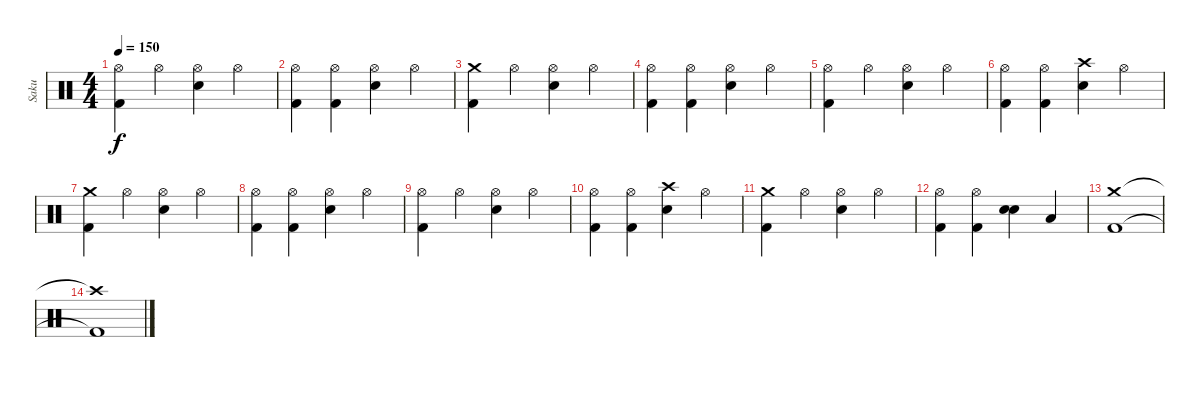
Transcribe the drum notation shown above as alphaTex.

\track ("Saku" "Saku") {instrument percussion}
\staff {score}
\articulation defaults
\ts (4 4)
\tempo 150
\clef neutral
\ks c
("Hi-Hat (open)" "Kick (hit) 2").4{dy f} "Hi-Hat (open)".4 ("Hi-Hat (open)" "Electric Snare (hit)").4 "Hi-Hat (open)".4 |
("Hi-Hat (open)" "Kick (hit) 2").4 ("Hi-Hat (open)" "Kick (hit) 2").4 ("Hi-Hat (open)" "Electric Snare (hit)").4 "Hi-Hat (open)".4 |
("Crash medium (hit)" "Kick (hit) 2").4 "Hi-Hat (open)".4 ("Hi-Hat (open)" "Electric Snare (hit)").4 "Hi-Hat (open)".4 |
("Hi-Hat (open)" "Kick (hit) 2").4 ("Hi-Hat (open)" "Kick (hit) 2").4 ("Hi-Hat (open)" "Electric Snare (hit)").4 "Hi-Hat (open)".4 |
("Hi-Hat (open)" "Kick (hit) 2").4 "Hi-Hat (open)".4 ("Hi-Hat (open)" "Electric Snare (hit)").4 "Hi-Hat (open)".4 |
("Hi-Hat (open)" "Kick (hit) 2").4 ("Hi-Hat (open)" "Kick (hit) 2").4 ("Crash high (hit)" "Electric Snare (hit)").4 "Hi-Hat (open)".4 |
("Crash medium (hit)" "Kick (hit) 2").4 "Hi-Hat (open)".4 ("Hi-Hat (open)" "Electric Snare (hit)").4 "Hi-Hat (open)".4 |
("Hi-Hat (open)" "Kick (hit) 2").4 ("Hi-Hat (open)" "Kick (hit) 2").4 ("Hi-Hat (open)" "Electric Snare (hit)").4 "Hi-Hat (open)".4 |
("Hi-Hat (open)" "Kick (hit) 2").4 "Hi-Hat (open)".4 ("Hi-Hat (open)" "Electric Snare (hit)").4 "Hi-Hat (open)".4 |
("Hi-Hat (open)" "Kick (hit) 2").4 ("Hi-Hat (open)" "Kick (hit) 2").4 ("Crash high (hit)" "Electric Snare (hit)").4 "Hi-Hat (open)".4 |
("Crash medium (hit)" "Kick (hit) 2").4 "Hi-Hat (open)".4 ("Hi-Hat (open)" "Electric Snare (hit)").4 "Hi-Hat (open)".4 |
("Hi-Hat (open)" "Kick (hit) 2").4 ("Hi-Hat (open)" "Kick (hit) 2").4 ("Electric Snare (hit)" "Electric Snare (hit)").4{bu 120} "Low Tom (hit)".4 |
("Crash medium (hit)" "Kick (hit) 2").1 |
("Crash high (hit)"{t} "Kick (hit) 2"{t}).1
